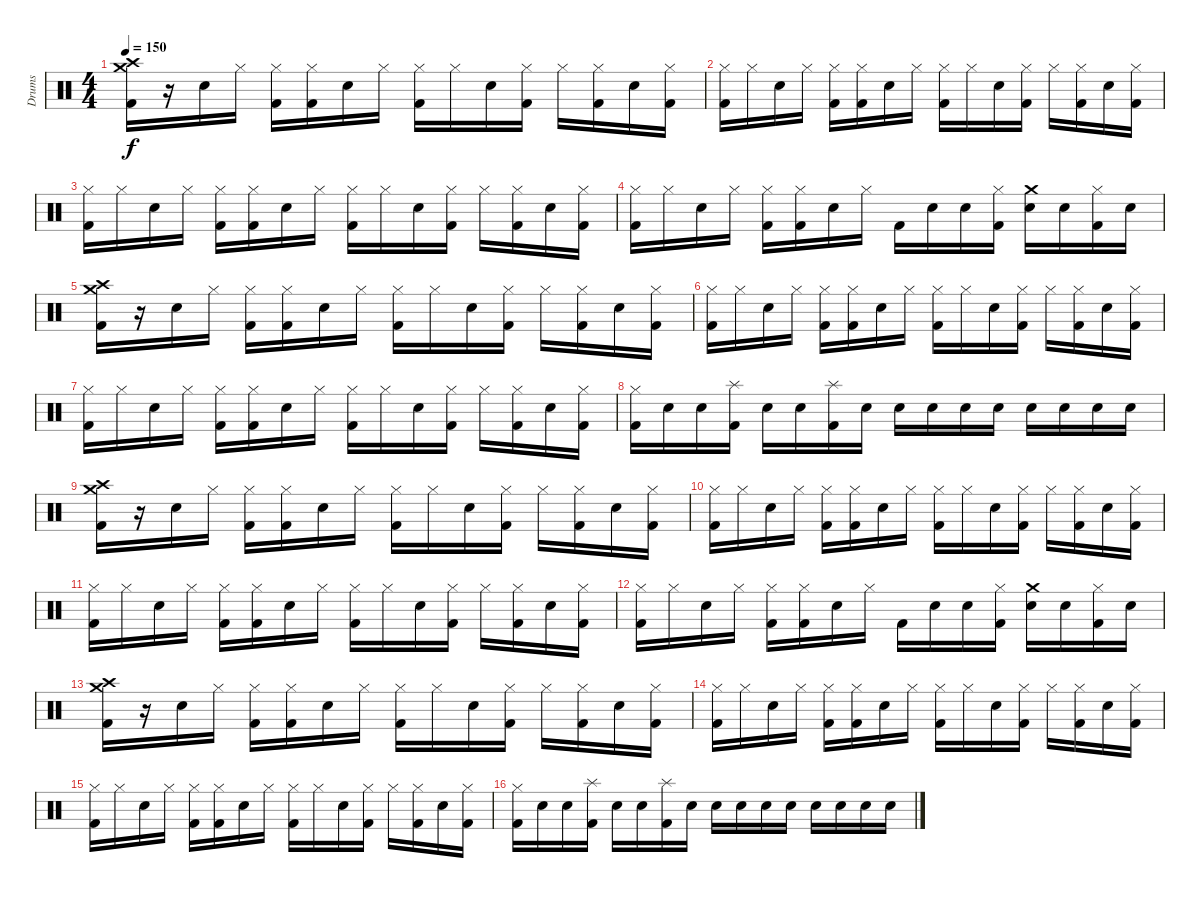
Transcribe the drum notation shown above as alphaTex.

\track ("Drums" "Drums") {instrument percussion}
\staff {score}
\articulation defaults
\ts (4 4)
\tempo 150
\clef neutral
\ks c
("Crash medium (hit)" "Crash high (hit)" "Kick (hit) 2").16{dy f} r.16 "Snare (hit) 2".16 "Hi-Hat (closed)".16 ("Hi-Hat (closed)" "Kick (hit) 2").16 ("Hi-Hat (closed)" "Kick (hit) 2").16 "Snare (hit) 2".16 "Hi-Hat (closed)".16 ("Hi-Hat (closed)" "Kick (hit) 2").16 "Hi-Hat (closed)".16 "Snare (hit) 2".16 ("Hi-Hat (closed)" "Kick (hit) 2").16 "Hi-Hat (closed)".16 ("Hi-Hat (closed)" "Kick (hit) 2").16 "Snare (hit) 2".16 ("Hi-Hat (closed)" "Kick (hit) 2").16 |
("Hi-Hat (closed)" "Kick (hit) 2").16 "Hi-Hat (closed)".16 "Snare (hit) 2".16 "Hi-Hat (closed)".16 ("Hi-Hat (closed)" "Kick (hit) 2").16 ("Hi-Hat (closed)" "Kick (hit) 2").16 "Snare (hit) 2".16 "Hi-Hat (closed)".16 ("Hi-Hat (closed)" "Kick (hit) 2").16 "Hi-Hat (closed)".16 "Snare (hit) 2".16 ("Hi-Hat (closed)" "Kick (hit) 2").16 "Hi-Hat (closed)".16 ("Hi-Hat (closed)" "Kick (hit) 2").16 "Snare (hit) 2".16 ("Hi-Hat (closed)" "Kick (hit) 2").16 |
("Hi-Hat (closed)" "Kick (hit) 2").16 "Hi-Hat (closed)".16 "Snare (hit) 2".16 "Hi-Hat (closed)".16 ("Hi-Hat (closed)" "Kick (hit) 2").16 ("Hi-Hat (closed)" "Kick (hit) 2").16 "Snare (hit) 2".16 "Hi-Hat (closed)".16 ("Hi-Hat (closed)" "Kick (hit) 2").16 "Hi-Hat (closed)".16 "Snare (hit) 2".16 ("Hi-Hat (closed)" "Kick (hit) 2").16 "Hi-Hat (closed)".16 ("Hi-Hat (closed)" "Kick (hit) 2").16 "Snare (hit) 2".16 ("Hi-Hat (closed)" "Kick (hit) 2").16 |
("Hi-Hat (closed)" "Kick (hit) 2").16 "Hi-Hat (closed)".16 "Snare (hit) 2".16 "Hi-Hat (closed)".16 ("Hi-Hat (closed)" "Kick (hit) 2").16 ("Hi-Hat (closed)" "Kick (hit) 2").16 "Snare (hit) 2".16 "Hi-Hat (closed)".16 "Kick (hit) 2".16 "Snare (hit) 2".16 "Snare (hit) 2".16 ("Hi-Hat (closed)" "Kick (hit) 2").16 ("Crash medium (hit)" "Snare (hit) 2").16 "Snare (hit) 2".16 ("Hi-Hat (closed)" "Kick (hit) 2").16 "Snare (hit) 2".16 |
("Crash medium (hit)" "Crash high (hit)" "Kick (hit) 2").16 r.16 "Snare (hit) 2".16 "Hi-Hat (closed)".16 ("Hi-Hat (closed)" "Kick (hit) 2").16 ("Hi-Hat (closed)" "Kick (hit) 2").16 "Snare (hit) 2".16 "Hi-Hat (closed)".16 ("Hi-Hat (closed)" "Kick (hit) 2").16 "Hi-Hat (closed)".16 "Snare (hit) 2".16 ("Hi-Hat (closed)" "Kick (hit) 2").16 "Hi-Hat (closed)".16 ("Hi-Hat (closed)" "Kick (hit) 2").16 "Snare (hit) 2".16 ("Hi-Hat (closed)" "Kick (hit) 2").16 |
("Hi-Hat (closed)" "Kick (hit) 2").16 "Hi-Hat (closed)".16 "Snare (hit) 2".16 "Hi-Hat (closed)".16 ("Hi-Hat (closed)" "Kick (hit) 2").16 ("Hi-Hat (closed)" "Kick (hit) 2").16 "Snare (hit) 2".16 "Hi-Hat (closed)".16 ("Hi-Hat (closed)" "Kick (hit) 2").16 "Hi-Hat (closed)".16 "Snare (hit) 2".16 ("Hi-Hat (closed)" "Kick (hit) 2").16 "Hi-Hat (closed)".16 ("Hi-Hat (closed)" "Kick (hit) 2").16 "Snare (hit) 2".16 ("Hi-Hat (closed)" "Kick (hit) 2").16 |
("Hi-Hat (closed)" "Kick (hit) 2").16 "Hi-Hat (closed)".16 "Snare (hit) 2".16 "Hi-Hat (closed)".16 ("Hi-Hat (closed)" "Kick (hit) 2").16 ("Hi-Hat (closed)" "Kick (hit) 2").16 "Snare (hit) 2".16 "Hi-Hat (closed)".16 ("Hi-Hat (closed)" "Kick (hit) 2").16 "Hi-Hat (closed)".16 "Snare (hit) 2".16 ("Hi-Hat (closed)" "Kick (hit) 2").16 "Hi-Hat (closed)".16 ("Hi-Hat (closed)" "Kick (hit) 2").16 "Snare (hit) 2".16 ("Hi-Hat (closed)" "Kick (hit) 2").16 |
("Hi-Hat (closed)" "Kick (hit) 2").16 "Snare (hit) 2".16 "Snare (hit) 2".16 ("Splash (hit)" "Kick (hit) 2").16 "Snare (hit) 2".16 "Snare (hit) 2".16 ("Splash (hit)" "Kick (hit) 2").16 "Snare (hit) 2".16 "Snare (hit) 2".16 "Snare (hit) 2".16 "Snare (hit) 2".16 "Snare (hit) 2".16 "Snare (hit) 2".16 "Snare (hit) 2".16 "Snare (hit) 2".16 "Snare (hit) 2".16 |
("Crash medium (hit)" "Crash high (hit)" "Kick (hit) 2").16 r.16 "Snare (hit) 2".16 "Hi-Hat (closed)".16 ("Hi-Hat (closed)" "Kick (hit) 2").16 ("Hi-Hat (closed)" "Kick (hit) 2").16 "Snare (hit) 2".16 "Hi-Hat (closed)".16 ("Hi-Hat (closed)" "Kick (hit) 2").16 "Hi-Hat (closed)".16 "Snare (hit) 2".16 ("Hi-Hat (closed)" "Kick (hit) 2").16 "Hi-Hat (closed)".16 ("Hi-Hat (closed)" "Kick (hit) 2").16 "Snare (hit) 2".16 ("Hi-Hat (closed)" "Kick (hit) 2").16 |
("Hi-Hat (closed)" "Kick (hit) 2").16 "Hi-Hat (closed)".16 "Snare (hit) 2".16 "Hi-Hat (closed)".16 ("Hi-Hat (closed)" "Kick (hit) 2").16 ("Hi-Hat (closed)" "Kick (hit) 2").16 "Snare (hit) 2".16 "Hi-Hat (closed)".16 ("Hi-Hat (closed)" "Kick (hit) 2").16 "Hi-Hat (closed)".16 "Snare (hit) 2".16 ("Hi-Hat (closed)" "Kick (hit) 2").16 "Hi-Hat (closed)".16 ("Hi-Hat (closed)" "Kick (hit) 2").16 "Snare (hit) 2".16 ("Hi-Hat (closed)" "Kick (hit) 2").16 |
("Hi-Hat (closed)" "Kick (hit) 2").16 "Hi-Hat (closed)".16 "Snare (hit) 2".16 "Hi-Hat (closed)".16 ("Hi-Hat (closed)" "Kick (hit) 2").16 ("Hi-Hat (closed)" "Kick (hit) 2").16 "Snare (hit) 2".16 "Hi-Hat (closed)".16 ("Hi-Hat (closed)" "Kick (hit) 2").16 "Hi-Hat (closed)".16 "Snare (hit) 2".16 ("Hi-Hat (closed)" "Kick (hit) 2").16 "Hi-Hat (closed)".16 ("Hi-Hat (closed)" "Kick (hit) 2").16 "Snare (hit) 2".16 ("Hi-Hat (closed)" "Kick (hit) 2").16 |
("Hi-Hat (closed)" "Kick (hit) 2").16 "Hi-Hat (closed)".16 "Snare (hit) 2".16 "Hi-Hat (closed)".16 ("Hi-Hat (closed)" "Kick (hit) 2").16 ("Hi-Hat (closed)" "Kick (hit) 2").16 "Snare (hit) 2".16 "Hi-Hat (closed)".16 "Kick (hit) 2".16 "Snare (hit) 2".16 "Snare (hit) 2".16 ("Hi-Hat (closed)" "Kick (hit) 2").16 ("Crash medium (hit)" "Snare (hit) 2").16 "Snare (hit) 2".16 ("Hi-Hat (closed)" "Kick (hit) 2").16 "Snare (hit) 2".16 |
("Crash medium (hit)" "Crash high (hit)" "Kick (hit) 2").16 r.16 "Snare (hit) 2".16 "Hi-Hat (closed)".16 ("Hi-Hat (closed)" "Kick (hit) 2").16 ("Hi-Hat (closed)" "Kick (hit) 2").16 "Snare (hit) 2".16 "Hi-Hat (closed)".16 ("Hi-Hat (closed)" "Kick (hit) 2").16 "Hi-Hat (closed)".16 "Snare (hit) 2".16 ("Hi-Hat (closed)" "Kick (hit) 2").16 "Hi-Hat (closed)".16 ("Hi-Hat (closed)" "Kick (hit) 2").16 "Snare (hit) 2".16 ("Hi-Hat (closed)" "Kick (hit) 2").16 |
("Hi-Hat (closed)" "Kick (hit) 2").16 "Hi-Hat (closed)".16 "Snare (hit) 2".16 "Hi-Hat (closed)".16 ("Hi-Hat (closed)" "Kick (hit) 2").16 ("Hi-Hat (closed)" "Kick (hit) 2").16 "Snare (hit) 2".16 "Hi-Hat (closed)".16 ("Hi-Hat (closed)" "Kick (hit) 2").16 "Hi-Hat (closed)".16 "Snare (hit) 2".16 ("Hi-Hat (closed)" "Kick (hit) 2").16 "Hi-Hat (closed)".16 ("Hi-Hat (closed)" "Kick (hit) 2").16 "Snare (hit) 2".16 ("Hi-Hat (closed)" "Kick (hit) 2").16 |
("Hi-Hat (closed)" "Kick (hit) 2").16 "Hi-Hat (closed)".16 "Snare (hit) 2".16 "Hi-Hat (closed)".16 ("Hi-Hat (closed)" "Kick (hit) 2").16 ("Hi-Hat (closed)" "Kick (hit) 2").16 "Snare (hit) 2".16 "Hi-Hat (closed)".16 ("Hi-Hat (closed)" "Kick (hit) 2").16 "Hi-Hat (closed)".16 "Snare (hit) 2".16 ("Hi-Hat (closed)" "Kick (hit) 2").16 "Hi-Hat (closed)".16 ("Hi-Hat (closed)" "Kick (hit) 2").16 "Snare (hit) 2".16 ("Hi-Hat (closed)" "Kick (hit) 2").16 |
("Hi-Hat (closed)" "Kick (hit) 2").16 "Snare (hit) 2".16 "Snare (hit) 2".16 ("Splash (hit)" "Kick (hit) 2").16 "Snare (hit) 2".16 "Snare (hit) 2".16 ("Splash (hit)" "Kick (hit) 2").16 "Snare (hit) 2".16 "Snare (hit) 2".16 "Snare (hit) 2".16 "Snare (hit) 2".16 "Snare (hit) 2".16 "Snare (hit) 2".16 "Snare (hit) 2".16 "Snare (hit) 2".16 "Snare (hit) 2".16
